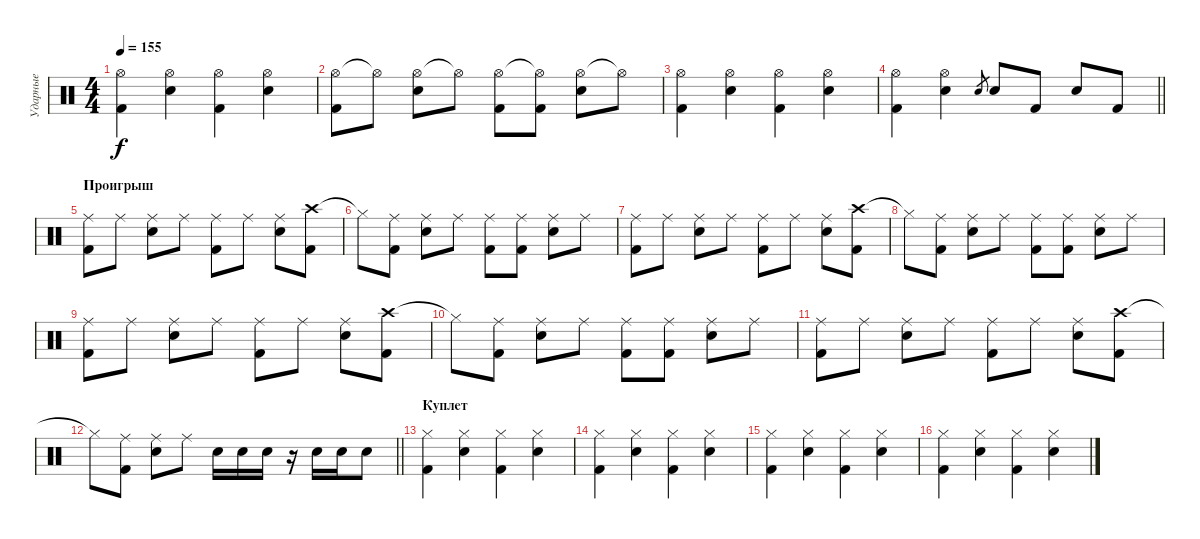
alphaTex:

\track ("Ударные" "Ударные") {solo instrument percussion}
\staff {score}
\articulation defaults
\ts (4 4)
\tempo 155
\clef neutral
\ks c
("Hi-Hat (open)" "Kick (hit) 2").4{dy f} ("Hi-Hat (open)" "Electric Snare (hit)").4 ("Hi-Hat (open)" "Kick (hit) 2").4 ("Hi-Hat (open)" "Electric Snare (hit)").4 |
("Hi-Hat (open)" "Kick (hit) 2").8 "Hi-Hat (open)"{t}.8 ("Hi-Hat (open)" "Electric Snare (hit)").8 "Hi-Hat (open)"{t}.8 ("Hi-Hat (open)" "Kick (hit) 2").8 ("Hi-Hat (open)"{t} "Kick (hit) 2").8 ("Hi-Hat (open)" "Electric Snare (hit)").8 "Hi-Hat (open)"{t}.8 |
("Hi-Hat (open)" "Kick (hit) 2").4 ("Hi-Hat (open)" "Electric Snare (hit)").4 ("Hi-Hat (open)" "Kick (hit) 2").4 ("Hi-Hat (open)" "Electric Snare (hit)").4 |
\barLineRight lightlight
("Hi-Hat (open)" "Kick (hit) 2").4 ("Hi-Hat (open)" "Electric Snare (hit)").4 "Electric Snare (hit)".8{gr} "Electric Snare (hit)".8 "Kick (hit) 2".8 "Electric Snare (hit)".8 "Kick (hit) 2".8 |
\section ("" "Проигрыш")
("Ride (middle)" "Kick (hit) 2").8 "Ride (middle)".8 ("Ride (middle)" "Electric Snare (hit)").8 "Ride (middle)".8 ("Ride (middle)" "Kick (hit) 2").8 "Ride (middle)".8 ("Ride (middle)" "Electric Snare (hit)").8 ("Crash high (hit)" "Kick (hit) 2").8 |
"Hi-Hat (closed)"{t}.8 ("Ride (middle)" "Kick (hit) 2").8 ("Ride (middle)" "Electric Snare (hit)").8 "Ride (middle)".8 ("Ride (middle)" "Kick (hit) 2").8 ("Ride (middle)" "Kick (hit) 2").8 ("Ride (middle)" "Electric Snare (hit)").8 "Ride (middle)".8 |
("Ride (middle)" "Kick (hit) 2").8 "Ride (middle)".8 ("Ride (middle)" "Electric Snare (hit)").8 "Ride (middle)".8 ("Ride (middle)" "Kick (hit) 2").8 "Ride (middle)".8 ("Ride (middle)" "Electric Snare (hit)").8 ("Crash high (hit)" "Kick (hit) 2").8 |
"Hi-Hat (closed)"{t}.8 ("Ride (middle)" "Kick (hit) 2").8 ("Ride (middle)" "Electric Snare (hit)").8 "Ride (middle)".8 ("Ride (middle)" "Kick (hit) 2").8 ("Ride (middle)" "Kick (hit) 2").8 ("Ride (middle)" "Electric Snare (hit)").8 "Ride (middle)".8 |
("Ride (middle)" "Kick (hit) 2").8 "Ride (middle)".8 ("Ride (middle)" "Electric Snare (hit)").8 "Ride (middle)".8 ("Ride (middle)" "Kick (hit) 2").8 "Ride (middle)".8 ("Ride (middle)" "Electric Snare (hit)").8 ("Crash high (hit)" "Kick (hit) 2").8 |
"Hi-Hat (closed)"{t}.8 ("Ride (middle)" "Kick (hit) 2").8 ("Ride (middle)" "Electric Snare (hit)").8 "Ride (middle)".8 ("Ride (middle)" "Kick (hit) 2").8 ("Ride (middle)" "Kick (hit) 2").8 ("Ride (middle)" "Electric Snare (hit)").8 "Ride (middle)".8 |
("Ride (middle)" "Kick (hit) 2").8 "Ride (middle)".8 ("Ride (middle)" "Electric Snare (hit)").8 "Ride (middle)".8 ("Ride (middle)" "Kick (hit) 2").8 "Ride (middle)".8 ("Ride (middle)" "Electric Snare (hit)").8 ("Crash high (hit)" "Kick (hit) 2").8 |
\barLineRight lightlight "Hi-Hat (closed)"{t}.8
("Ride (middle)" "Kick (hit) 2").8 ("Ride (middle)" "Electric Snare (hit)").8 "Ride (middle)".8 "Electric Snare (hit)".16 "Electric Snare (hit)".16 "Electric Snare (hit)".16 r.16 "Electric Snare (hit)".16 "Electric Snare (hit)".16 "Electric Snare (hit)".8 |
\section ("" "Куплет")
("Hi-Hat (closed)" "Kick (hit) 2").4 ("Hi-Hat (closed)" "Electric Snare (hit)").4 ("Hi-Hat (closed)" "Kick (hit) 2").4 ("Hi-Hat (closed)" "Electric Snare (hit)").4 |
("Hi-Hat (closed)" "Kick (hit) 2").4 ("Hi-Hat (closed)" "Electric Snare (hit)").4 ("Hi-Hat (closed)" "Kick (hit) 2").4 ("Hi-Hat (closed)" "Electric Snare (hit)").4 |
("Hi-Hat (closed)" "Kick (hit) 2").4 ("Hi-Hat (closed)" "Electric Snare (hit)").4 ("Hi-Hat (closed)" "Kick (hit) 2").4 ("Hi-Hat (closed)" "Electric Snare (hit)").4 |
("Hi-Hat (closed)" "Kick (hit) 2").4 ("Hi-Hat (closed)" "Electric Snare (hit)").4 ("Hi-Hat (closed)" "Kick (hit) 2").4 ("Hi-Hat (closed)" "Electric Snare (hit)").4
